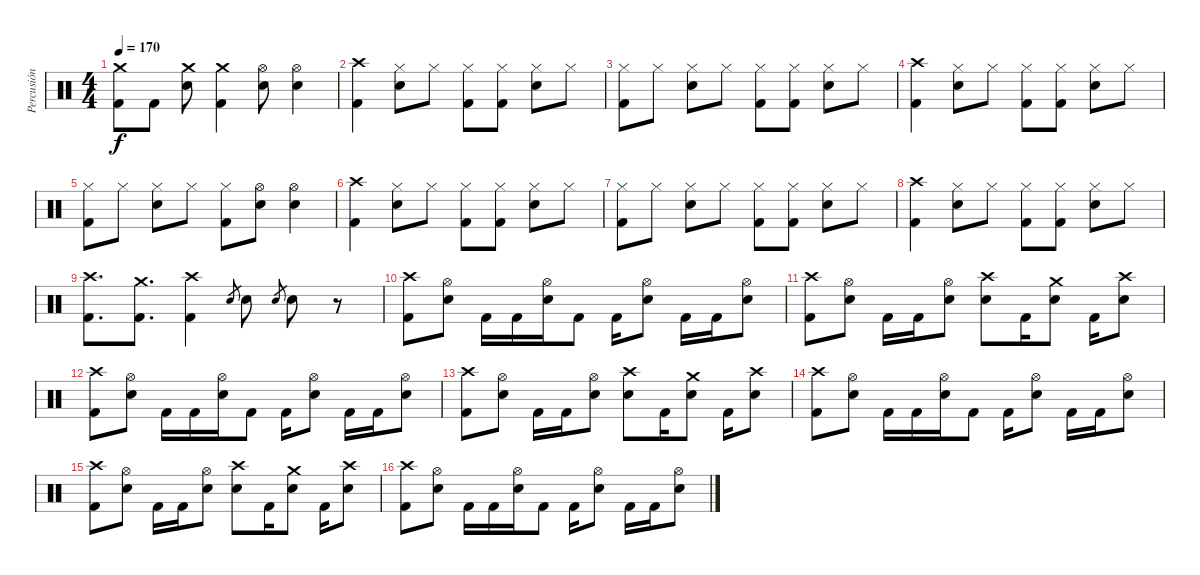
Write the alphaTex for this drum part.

\track ("Percusión" "Percusión") {instrument percussion}
\staff {score}
\articulation defaults
\ts (4 4)
\tempo 170
\clef neutral
\ks c
("Crash medium (hit)" "Kick (hit) 2").8{dy f} "Kick (hit) 2".8 ("Crash medium (hit)" "Electric Snare (hit)").8 ("Crash medium (hit)" "Kick (hit) 2").4 ("Hi-Hat (open)" "Electric Snare (hit)").8 ("Hi-Hat (open)" "Electric Snare (hit)").4 |
("Crash high (hit)" "Kick (hit) 2").4 ("Hi-Hat (closed)" "Electric Snare (hit)").8 "Hi-Hat (closed)".8 ("Hi-Hat (closed)" "Kick (hit) 2").8 ("Hi-Hat (closed)" "Kick (hit) 2").8 ("Hi-Hat (closed)" "Electric Snare (hit)").8 "Hi-Hat (closed)".8 |
("Hi-Hat (closed)" "Kick (hit) 2").8 "Hi-Hat (closed)".8 ("Hi-Hat (closed)" "Electric Snare (hit)").8 "Hi-Hat (closed)".8 ("Hi-Hat (closed)" "Kick (hit) 2").8 ("Hi-Hat (closed)" "Kick (hit) 2").8 ("Hi-Hat (closed)" "Electric Snare (hit)").8 "Hi-Hat (closed)".8 |
("Crash high (hit)" "Kick (hit) 2").4 ("Hi-Hat (closed)" "Electric Snare (hit)").8 "Hi-Hat (closed)".8 ("Hi-Hat (closed)" "Kick (hit) 2").8 ("Hi-Hat (closed)" "Kick (hit) 2").8 ("Hi-Hat (closed)" "Electric Snare (hit)").8 "Hi-Hat (closed)".8 |
("Hi-Hat (closed)" "Kick (hit) 2").8 "Hi-Hat (closed)".8 ("Hi-Hat (closed)" "Electric Snare (hit)").8 "Hi-Hat (closed)".8 ("Hi-Hat (closed)" "Kick (hit) 2").8 ("Hi-Hat (open)" "Electric Snare (hit)").8 ("Hi-Hat (open)" "Electric Snare (hit)").4 |
("Crash high (hit)" "Kick (hit) 2").4 ("Hi-Hat (closed)" "Electric Snare (hit)").8 "Hi-Hat (closed)".8 ("Hi-Hat (closed)" "Kick (hit) 2").8 ("Hi-Hat (closed)" "Kick (hit) 2").8 ("Hi-Hat (closed)" "Electric Snare (hit)").8 "Hi-Hat (closed)".8 |
("Hi-Hat (closed)" "Kick (hit) 2").8 "Hi-Hat (closed)".8 ("Hi-Hat (closed)" "Electric Snare (hit)").8 "Hi-Hat (closed)".8 ("Hi-Hat (closed)" "Kick (hit) 2").8 ("Hi-Hat (closed)" "Kick (hit) 2").8 ("Hi-Hat (closed)" "Electric Snare (hit)").8 "Hi-Hat (closed)".8 |
("Crash high (hit)" "Kick (hit) 2").4 ("Hi-Hat (closed)" "Electric Snare (hit)").8 "Hi-Hat (closed)".8 ("Hi-Hat (closed)" "Kick (hit) 2").8 ("Hi-Hat (closed)" "Kick (hit) 2").8 ("Hi-Hat (closed)" "Electric Snare (hit)").8 "Hi-Hat (closed)".8 |
("Crash high (hit)" "Kick (hit) 2").8{d} ("Crash medium (hit)" "Kick (hit) 2").8{d} ("Crash high (hit)" "Kick (hit) 2").4 "Electric Snare (hit)".8{gr} "Electric Snare (hit)".8 "Electric Snare (hit)".8{gr} "Electric Snare (hit)".8 r.8 |
("Crash high (hit)" "Kick (hit) 2").8 ("Hi-Hat (open)" "Electric Snare (hit)").8 "Kick (hit) 2".16 "Kick (hit) 2".16 ("Hi-Hat (open)" "Electric Snare (hit)").16 "Kick (hit) 2".8 "Kick (hit) 2".16 ("Hi-Hat (open)" "Electric Snare (hit)").8 "Kick (hit) 2".16 "Kick (hit) 2".16 ("Hi-Hat (open)" "Electric Snare (hit)").8 |
("Crash high (hit)" "Kick (hit) 2").8 ("Hi-Hat (open)" "Electric Snare (hit)").8 "Kick (hit) 2".16 "Kick (hit) 2".16 ("Hi-Hat (open)" "Electric Snare (hit)").8 ("Crash high (hit)" "Electric Snare (hit)").8 "Kick (hit) 2".16 ("Crash medium (hit)" "Electric Snare (hit)").8 "Kick (hit) 2".16 ("Crash high (hit)" "Electric Snare (hit)").8 |
("Crash high (hit)" "Kick (hit) 2").8 ("Hi-Hat (open)" "Electric Snare (hit)").8 "Kick (hit) 2".16 "Kick (hit) 2".16 ("Hi-Hat (open)" "Electric Snare (hit)").16 "Kick (hit) 2".8 "Kick (hit) 2".16 ("Hi-Hat (open)" "Electric Snare (hit)").8 "Kick (hit) 2".16 "Kick (hit) 2".16 ("Hi-Hat (open)" "Electric Snare (hit)").8 |
("Crash high (hit)" "Kick (hit) 2").8 ("Hi-Hat (open)" "Electric Snare (hit)").8 "Kick (hit) 2".16 "Kick (hit) 2".16 ("Hi-Hat (open)" "Electric Snare (hit)").8 ("Crash high (hit)" "Electric Snare (hit)").8 "Kick (hit) 2".16 ("Crash medium (hit)" "Electric Snare (hit)").8 "Kick (hit) 2".16 ("Crash high (hit)" "Electric Snare (hit)").8 |
("Crash high (hit)" "Kick (hit) 2").8 ("Hi-Hat (open)" "Electric Snare (hit)").8 "Kick (hit) 2".16 "Kick (hit) 2".16 ("Hi-Hat (open)" "Electric Snare (hit)").16 "Kick (hit) 2".8 "Kick (hit) 2".16 ("Hi-Hat (open)" "Electric Snare (hit)").8 "Kick (hit) 2".16 "Kick (hit) 2".16 ("Hi-Hat (open)" "Electric Snare (hit)").8 |
("Crash high (hit)" "Kick (hit) 2").8 ("Hi-Hat (open)" "Electric Snare (hit)").8 "Kick (hit) 2".16 "Kick (hit) 2".16 ("Hi-Hat (open)" "Electric Snare (hit)").8 ("Crash high (hit)" "Electric Snare (hit)").8 "Kick (hit) 2".16 ("Crash medium (hit)" "Electric Snare (hit)").8 "Kick (hit) 2".16 ("Crash high (hit)" "Electric Snare (hit)").8 |
("Crash high (hit)" "Kick (hit) 2").8 ("Hi-Hat (open)" "Electric Snare (hit)").8 "Kick (hit) 2".16 "Kick (hit) 2".16 ("Hi-Hat (open)" "Electric Snare (hit)").16 "Kick (hit) 2".8 "Kick (hit) 2".16 ("Hi-Hat (open)" "Electric Snare (hit)").8 "Kick (hit) 2".16 "Kick (hit) 2".16 ("Hi-Hat (open)" "Electric Snare (hit)").8
